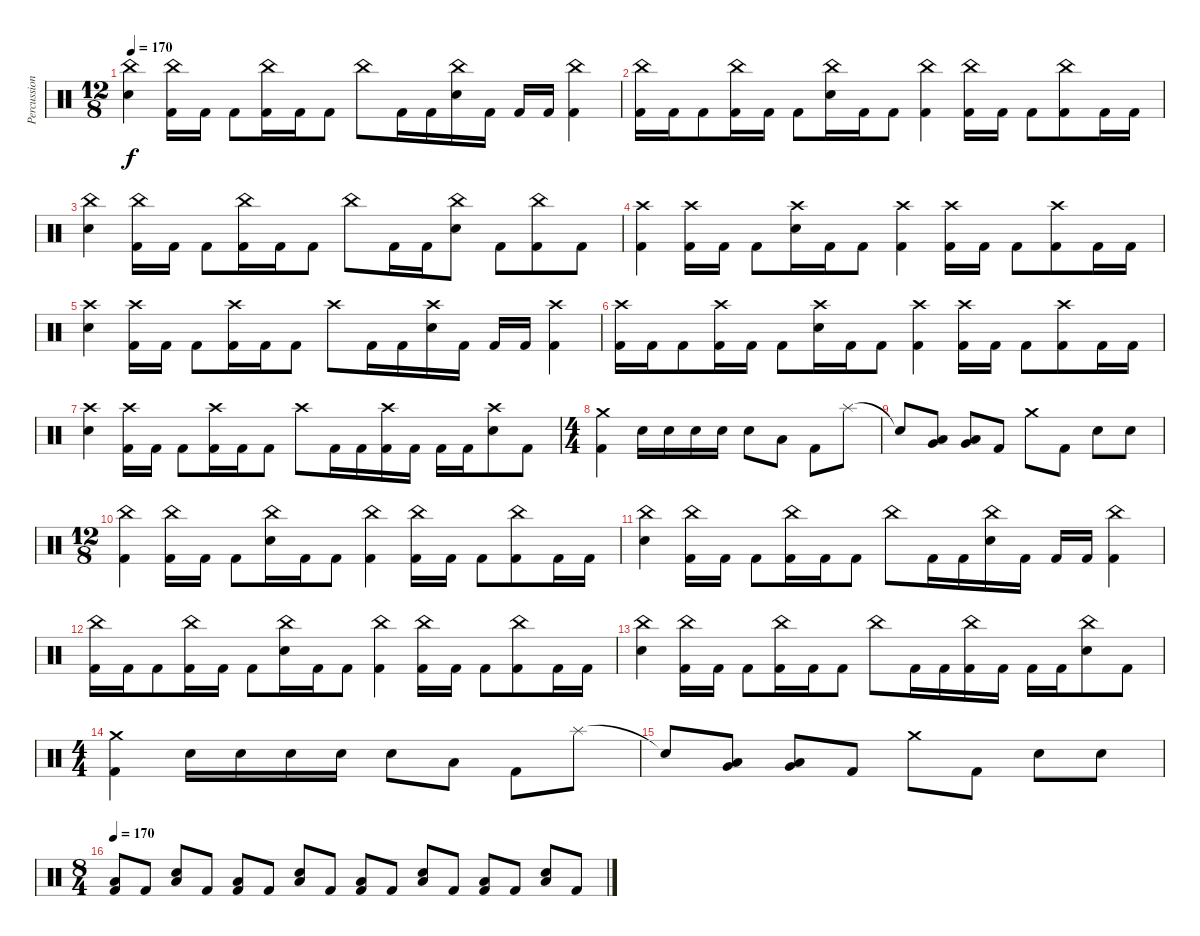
\track ("Percussion" "Percussion") {instrument percussion}
\staff {score}
\articulation defaults
\ts (12 8)
\tempo 170
\clef neutral
\ks c
("China (hit)" "Snare (hit) 2").4{dy f} ("China (hit)" "Kick (hit) 2").16 "Kick (hit) 2".16 "Kick (hit) 2".8 ("China (hit)" "Kick (hit) 2").16 "Kick (hit) 2".16 "Kick (hit) 2".8 "China (hit)".8 "Kick (hit) 2".16 "Kick (hit) 2".16 ("China (hit)" "Snare (hit) 2").16 "Kick (hit) 2".16 "Kick (hit) 2".16 "Kick (hit) 2".16 ("China (hit)" "Kick (hit) 2").4 |
("China (hit)" "Kick (hit) 2").16 "Kick (hit) 2".16 "Kick (hit) 2".8 ("China (hit)" "Kick (hit) 2").16 "Kick (hit) 2".16 "Kick (hit) 2".8 ("China (hit)" "Snare (hit) 2").16 "Kick (hit) 2".16 "Kick (hit) 2".8 ("China (hit)" "Kick (hit) 2").4 ("China (hit)" "Kick (hit) 2").16 "Kick (hit) 2".16 "Kick (hit) 2".8 ("China (hit)" "Kick (hit) 2").8 "Kick (hit) 2".16 "Kick (hit) 2".16 |
("China (hit)" "Snare (hit) 2").4 ("China (hit)" "Kick (hit) 2").16 "Kick (hit) 2".16 "Kick (hit) 2".8 ("China (hit)" "Kick (hit) 2").16 "Kick (hit) 2".16 "Kick (hit) 2".8 "China (hit)".8 "Kick (hit) 2".16 "Kick (hit) 2".16 ("China (hit)" "Snare (hit) 2").8 "Kick (hit) 2".8 ("China (hit)" "Kick (hit) 2").8 "Kick (hit) 2".8 |
("Crash high (hit)" "Kick (hit) 2").4 ("Crash high (hit)" "Kick (hit) 2").16 "Kick (hit) 2".16 "Kick (hit) 2".8 ("Crash high (hit)" "Snare (hit) 2").16 "Kick (hit) 2".16 "Kick (hit) 2".8 ("Crash high (hit)" "Kick (hit) 2").4 ("Crash high (hit)" "Kick (hit) 2").16 "Kick (hit) 2".16 "Kick (hit) 2".8 ("Crash high (hit)" "Kick (hit) 2").8 "Kick (hit) 2".16 "Kick (hit) 2".16 |
("Crash high (hit)" "Snare (hit) 2").4 ("Crash high (hit)" "Kick (hit) 2").16 "Kick (hit) 2".16 "Kick (hit) 2".8 ("Crash high (hit)" "Kick (hit) 2").16 "Kick (hit) 2".16 "Kick (hit) 2".8 "Crash high (hit)".8 "Kick (hit) 2".16 "Kick (hit) 2".16 ("Crash high (hit)" "Snare (hit) 2").16 "Kick (hit) 2".16 "Kick (hit) 2".16 "Kick (hit) 2".16 ("Crash high (hit)" "Kick (hit) 2").4 |
("Crash high (hit)" "Kick (hit) 2").16 "Kick (hit) 2".16 "Kick (hit) 2".8 ("Crash high (hit)" "Kick (hit) 2").16 "Kick (hit) 2".16 "Kick (hit) 2".8 ("Crash high (hit)" "Snare (hit) 2").16 "Kick (hit) 2".16 "Kick (hit) 2".8 ("Crash high (hit)" "Kick (hit) 2").4 ("Crash high (hit)" "Kick (hit) 2").16 "Kick (hit) 2".16 "Kick (hit) 2".8 ("Crash high (hit)" "Kick (hit) 2").8 "Kick (hit) 2".16 "Kick (hit) 2".16 |
("Crash high (hit)" "Snare (hit) 2").4 ("Crash high (hit)" "Kick (hit) 2").16 "Kick (hit) 2".16 "Kick (hit) 2".8 ("Crash high (hit)" "Kick (hit) 2").16 "Kick (hit) 2".16 "Kick (hit) 2".8 "Crash high (hit)".8 "Kick (hit) 2".16 "Kick (hit) 2".16 ("Crash high (hit)" "Kick (hit) 2").16 "Kick (hit) 2".16 "Kick (hit) 2".16 "Kick (hit) 2".16 ("Crash high (hit)" "Snare (hit) 2").8 "Kick (hit) 2".8 |
\ts (4 4)
("Crash medium (hit)" "Kick (hit) 2").4 "Snare (hit) 2".16 "Snare (hit) 2".16 "Snare (hit) 2".16 "Snare (hit) 2".16 "Snare (hit) 2".8 "Low Tom (hit)".8 "Kick (hit) 2".8 "Splash (hit)".8 |
"Snare (hit)"{t}.8 ("Very Low Tom (hit)" "Low Tom (hit)").8 ("Very Low Tom (hit)" "Low Tom (hit)").8 "Kick (hit) 2".8 "Crash medium (hit)".8 "Kick (hit) 2".8 "Snare (hit) 2".8 "Snare (hit) 2".8 |
\ts (12 8)
("China (hit)" "Kick (hit) 2").4 ("China (hit)" "Kick (hit) 2").16 "Kick (hit) 2".16 "Kick (hit) 2".8 ("China (hit)" "Snare (hit) 2").16 "Kick (hit) 2".16 "Kick (hit) 2".8 ("China (hit)" "Kick (hit) 2").4 ("China (hit)" "Kick (hit) 2").16 "Kick (hit) 2".16 "Kick (hit) 2".8 ("China (hit)" "Kick (hit) 2").8 "Kick (hit) 2".16 "Kick (hit) 2".16 |
("China (hit)" "Snare (hit) 2").4 ("China (hit)" "Kick (hit) 2").16 "Kick (hit) 2".16 "Kick (hit) 2".8 ("China (hit)" "Kick (hit) 2").16 "Kick (hit) 2".16 "Kick (hit) 2".8 "China (hit)".8 "Kick (hit) 2".16 "Kick (hit) 2".16 ("China (hit)" "Snare (hit) 2").16 "Kick (hit) 2".16 "Kick (hit) 2".16 "Kick (hit) 2".16 ("China (hit)" "Kick (hit) 2").4 |
("China (hit)" "Kick (hit) 2").16 "Kick (hit) 2".16 "Kick (hit) 2".8 ("China (hit)" "Kick (hit) 2").16 "Kick (hit) 2".16 "Kick (hit) 2".8 ("China (hit)" "Snare (hit) 2").16 "Kick (hit) 2".16 "Kick (hit) 2".8 ("China (hit)" "Kick (hit) 2").4 ("China (hit)" "Kick (hit) 2").16 "Kick (hit) 2".16 "Kick (hit) 2".8 ("China (hit)" "Kick (hit) 2").8 "Kick (hit) 2".16 "Kick (hit) 2".16 |
("China (hit)" "Snare (hit) 2").4 ("China (hit)" "Kick (hit) 2").16 "Kick (hit) 2".16 "Kick (hit) 2".8 ("China (hit)" "Kick (hit) 2").16 "Kick (hit) 2".16 "Kick (hit) 2".8 "China (hit)".8 "Kick (hit) 2".16 "Kick (hit) 2".16 ("China (hit)" "Kick (hit) 2").16 "Kick (hit) 2".16 "Kick (hit) 2".16 "Kick (hit) 2".16 ("China (hit)" "Snare (hit) 2").8 "Kick (hit) 2".8 |
\ts (4 4)
("Crash medium (hit)" "Kick (hit) 2").4 "Snare (hit) 2".16 "Snare (hit) 2".16 "Snare (hit) 2".16 "Snare (hit) 2".16 "Snare (hit) 2".8 "Low Tom (hit)".8 "Kick (hit) 2".8 "Splash (hit)".8 |
"Snare (hit)"{t}.8 ("Very Low Tom (hit)" "Low Tom (hit)").8 ("Very Low Tom (hit)" "Low Tom (hit)").8 "Kick (hit) 2".8 "Crash medium (hit)".8 "Kick (hit) 2".8 "Snare (hit) 2".8 "Snare (hit) 2".8 |
\ts (8 4)
\tempo 170
("Low Tom (hit)" "Kick (hit) 2").8 "Kick (hit) 2".8 ("Low Tom (hit)" "Snare (hit) 2").8 "Kick (hit) 2".8 ("Low Tom (hit)" "Kick (hit) 2").8 "Kick (hit) 2".8 ("Low Tom (hit)" "Snare (hit) 2").8 "Kick (hit) 2".8 ("Low Tom (hit)" "Kick (hit) 2").8 "Kick (hit) 2".8 ("Low Tom (hit)" "Snare (hit) 2").8 "Kick (hit) 2".8 ("Low Tom (hit)" "Kick (hit) 2").8 "Kick (hit) 2".8 ("Low Tom (hit)" "Snare (hit) 2").8 "Kick (hit) 2".8
